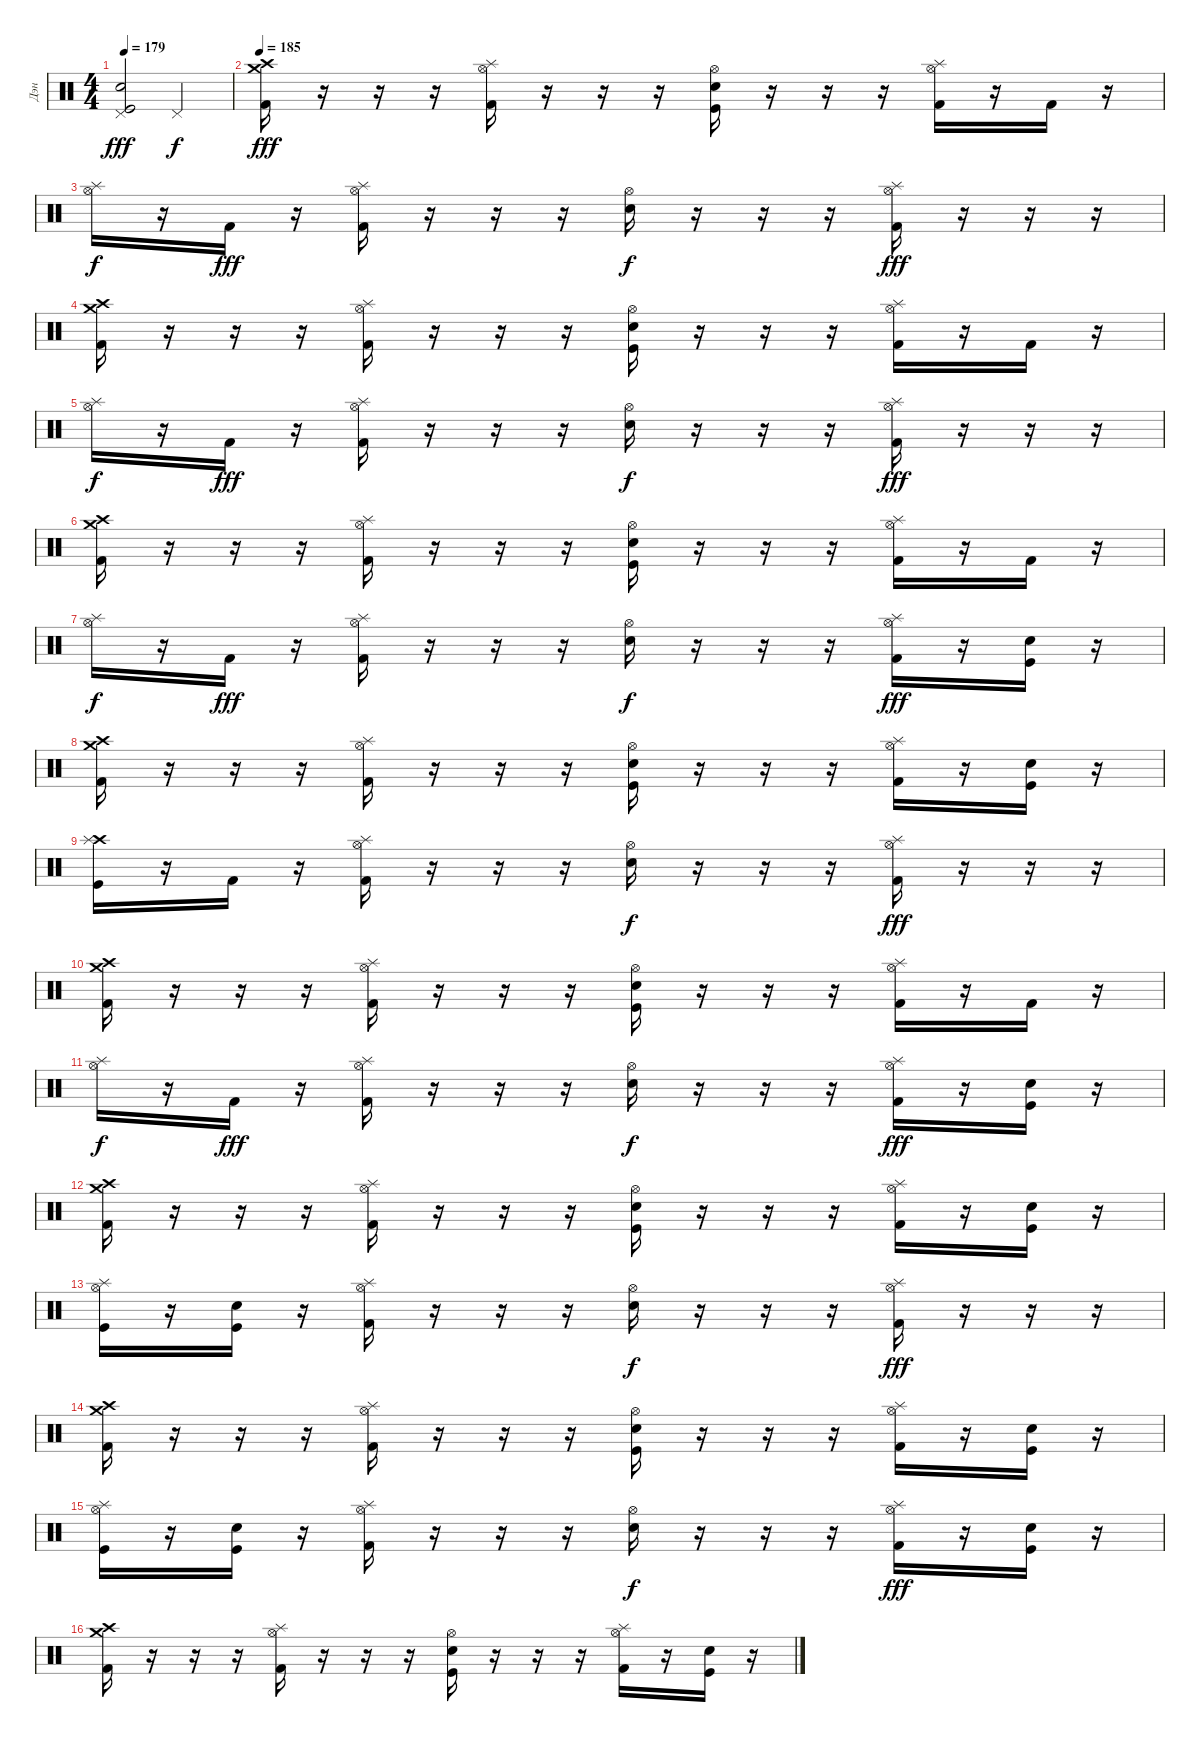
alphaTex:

\track ("Дэн" "Дэн") {instrument percussion}
\staff {score}
\articulation defaults
\ts (4 4)
\tempo 179
\clef neutral
\ks c
("Pedal Hi-Hat (hit)" "Electric Snare (hit)" "Kick (hit)").2{dy fff} "Pedal Hi-Hat (hit)".2{dy f} |
\tempo 185
("Crash high (hit)" "Crash medium (hit)" "Kick (hit) 2").16{dy fff} r.16 r.16 r.16 ("Hi-Hat (open)" "Splash (hit)" "Kick (hit) 2").16 r.16 r.16 r.16 ("Hi-Hat (open)" "Electric Snare (hit)" "Kick (hit)").16 r.16 r.16 r.16 ("Hi-Hat (open)" "Splash (hit)" "Kick (hit) 2").16 r.16 "Kick (hit) 2".16 r.16 |
("Hi-Hat (open)" "Splash (hit)").16{dy f} r.16 "Kick (hit) 2".16{dy fff} r.16 ("Hi-Hat (open)" "Splash (hit)" "Kick (hit) 2").16 r.16 r.16 r.16 ("Hi-Hat (open)" "Electric Snare (hit)").16{dy f} r.16 r.16 r.16 ("Hi-Hat (open)" "Splash (hit)" "Kick (hit) 2").16{dy fff} r.16 r.16 r.16 |
("Crash high (hit)" "Crash medium (hit)" "Kick (hit) 2").16 r.16 r.16 r.16 ("Hi-Hat (open)" "Splash (hit)" "Kick (hit) 2").16 r.16 r.16 r.16 ("Hi-Hat (open)" "Electric Snare (hit)" "Kick (hit)").16 r.16 r.16 r.16 ("Hi-Hat (open)" "Splash (hit)" "Kick (hit) 2").16 r.16 "Kick (hit) 2".16 r.16 |
("Hi-Hat (open)" "Splash (hit)").16{dy f} r.16 "Kick (hit) 2".16{dy fff} r.16 ("Hi-Hat (open)" "Splash (hit)" "Kick (hit) 2").16 r.16 r.16 r.16 ("Hi-Hat (open)" "Electric Snare (hit)").16{dy f} r.16 r.16 r.16 ("Hi-Hat (open)" "Splash (hit)" "Kick (hit) 2").16{dy fff} r.16 r.16 r.16 |
("Crash high (hit)" "Crash medium (hit)" "Kick (hit) 2").16 r.16 r.16 r.16 ("Hi-Hat (open)" "Splash (hit)" "Kick (hit) 2").16 r.16 r.16 r.16 ("Hi-Hat (open)" "Electric Snare (hit)" "Kick (hit)").16 r.16 r.16 r.16 ("Hi-Hat (open)" "Splash (hit)" "Kick (hit) 2").16 r.16 "Kick (hit) 2".16 r.16 |
("Hi-Hat (open)" "Splash (hit)").16{dy f} r.16 "Kick (hit) 2".16{dy fff} r.16 ("Hi-Hat (open)" "Splash (hit)" "Kick (hit) 2").16 r.16 r.16 r.16 ("Hi-Hat (open)" "Electric Snare (hit)").16{dy f} r.16 r.16 r.16 ("Hi-Hat (open)" "Splash (hit)" "Kick (hit) 2").16{dy fff} r.16 ("Electric Snare (hit)" "Kick (hit)").16 r.16 |
("Crash high (hit)" "Crash medium (hit)" "Kick (hit) 2").16 r.16 r.16 r.16 ("Hi-Hat (open)" "Splash (hit)" "Kick (hit) 2").16 r.16 r.16 r.16 ("Hi-Hat (open)" "Electric Snare (hit)" "Kick (hit)").16 r.16 r.16 r.16 ("Hi-Hat (open)" "Splash (hit)" "Kick (hit) 2").16 r.16 ("Electric Snare (hit)" "Kick (hit)").16 r.16 |
("Crash high (hit)" "Splash (hit)" "Kick (hit)").16 r.16 "Kick (hit) 2".16 r.16 ("Hi-Hat (open)" "Splash (hit)" "Kick (hit) 2").16 r.16 r.16 r.16 ("Hi-Hat (open)" "Electric Snare (hit)").16{dy f} r.16 r.16 r.16 ("Hi-Hat (open)" "Splash (hit)" "Kick (hit) 2").16{dy fff} r.16 r.16 r.16 |
("Crash high (hit)" "Crash medium (hit)" "Kick (hit) 2").16 r.16 r.16 r.16 ("Hi-Hat (open)" "Splash (hit)" "Kick (hit) 2").16 r.16 r.16 r.16 ("Hi-Hat (open)" "Electric Snare (hit)" "Kick (hit)").16 r.16 r.16 r.16 ("Hi-Hat (open)" "Splash (hit)" "Kick (hit) 2").16 r.16 "Kick (hit) 2".16 r.16 |
("Hi-Hat (open)" "Splash (hit)").16{dy f} r.16 "Kick (hit) 2".16{dy fff} r.16 ("Hi-Hat (open)" "Splash (hit)" "Kick (hit) 2").16 r.16 r.16 r.16 ("Hi-Hat (open)" "Electric Snare (hit)").16{dy f} r.16 r.16 r.16 ("Hi-Hat (open)" "Splash (hit)" "Kick (hit) 2").16{dy fff} r.16 ("Electric Snare (hit)" "Kick (hit)").16 r.16 |
("Crash high (hit)" "Crash medium (hit)" "Kick (hit) 2").16 r.16 r.16 r.16 ("Hi-Hat (open)" "Splash (hit)" "Kick (hit) 2").16 r.16 r.16 r.16 ("Hi-Hat (open)" "Electric Snare (hit)" "Kick (hit)").16 r.16 r.16 r.16 ("Hi-Hat (open)" "Splash (hit)" "Kick (hit) 2").16 r.16 ("Electric Snare (hit)" "Kick (hit)").16 r.16 |
("Hi-Hat (open)" "Splash (hit)" "Kick (hit)").16 r.16 ("Electric Snare (hit)" "Kick (hit)").16 r.16 ("Hi-Hat (open)" "Splash (hit)" "Kick (hit) 2").16 r.16 r.16 r.16 ("Hi-Hat (open)" "Electric Snare (hit)").16{dy f} r.16 r.16 r.16 ("Hi-Hat (open)" "Splash (hit)" "Kick (hit) 2").16{dy fff} r.16 r.16 r.16 |
("Crash high (hit)" "Crash medium (hit)" "Kick (hit) 2").16 r.16 r.16 r.16 ("Hi-Hat (open)" "Splash (hit)" "Kick (hit) 2").16 r.16 r.16 r.16 ("Hi-Hat (open)" "Electric Snare (hit)" "Kick (hit)").16 r.16 r.16 r.16 ("Hi-Hat (open)" "Splash (hit)" "Kick (hit) 2").16 r.16 ("Electric Snare (hit)" "Kick (hit)").16 r.16 |
("Hi-Hat (open)" "Splash (hit)" "Kick (hit)").16 r.16 ("Electric Snare (hit)" "Kick (hit)").16 r.16 ("Hi-Hat (open)" "Splash (hit)" "Kick (hit) 2").16 r.16 r.16 r.16 ("Hi-Hat (open)" "Electric Snare (hit)").16{dy f} r.16 r.16 r.16 ("Hi-Hat (open)" "Splash (hit)" "Kick (hit) 2").16{dy fff} r.16 ("Electric Snare (hit)" "Kick (hit)").16 r.16 |
("Crash high (hit)" "Crash medium (hit)" "Kick (hit) 2").16 r.16 r.16 r.16 ("Hi-Hat (open)" "Splash (hit)" "Kick (hit) 2").16 r.16 r.16 r.16 ("Hi-Hat (open)" "Electric Snare (hit)" "Kick (hit)").16 r.16 r.16 r.16 ("Hi-Hat (open)" "Splash (hit)" "Kick (hit) 2").16 r.16 ("Electric Snare (hit)" "Kick (hit)").16 r.16
